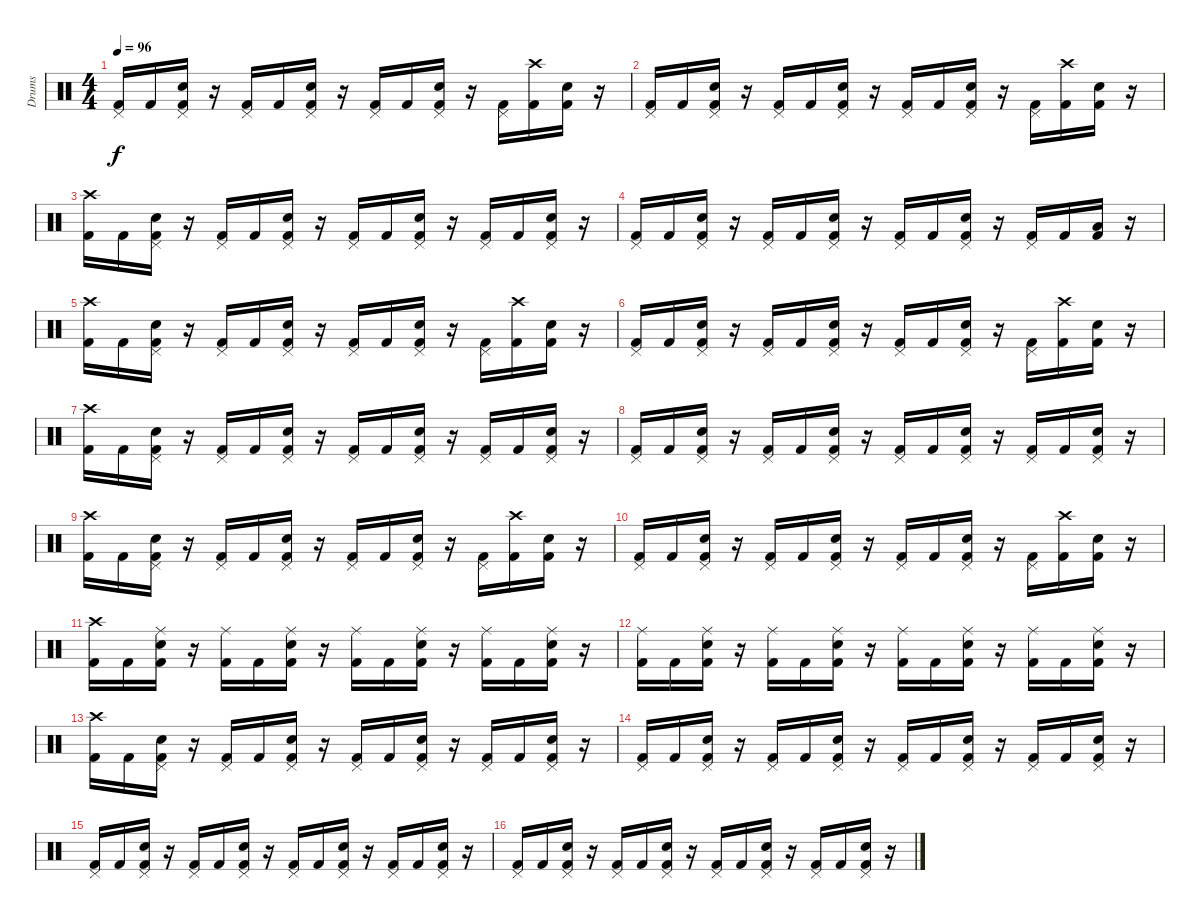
\track ("Drums" "Drums") {instrument percussion}
\staff {score}
\articulation defaults
\ts (4 4)
\tempo 96
\clef neutral
\ks c
("Pedal Hi-Hat (hit)" "Kick (hit) 2").16{dy f} "Kick (hit) 2".16 ("Pedal Hi-Hat (hit)" "Snare (hit) 2" "Kick (hit) 2").16 r.16 ("Pedal Hi-Hat (hit)" "Kick (hit) 2").16 "Kick (hit) 2".16 ("Pedal Hi-Hat (hit)" "Snare (hit) 2" "Kick (hit) 2").16 r.16 ("Pedal Hi-Hat (hit)" "Kick (hit) 2").16 "Kick (hit) 2".16 ("Pedal Hi-Hat (hit)" "Snare (hit) 2" "Kick (hit) 2").16 r.16 ("Pedal Hi-Hat (hit)" "Kick (hit) 2").16 ("Crash high (hit)" "Kick (hit) 2").16 ("Snare (hit) 2" "Kick (hit) 2").16 r.16 |
("Pedal Hi-Hat (hit)" "Kick (hit) 2").16 "Kick (hit) 2".16 ("Pedal Hi-Hat (hit)" "Snare (hit) 2" "Kick (hit) 2").16 r.16 ("Pedal Hi-Hat (hit)" "Kick (hit) 2").16 "Kick (hit) 2".16 ("Pedal Hi-Hat (hit)" "Snare (hit) 2" "Kick (hit) 2").16 r.16 ("Pedal Hi-Hat (hit)" "Kick (hit) 2").16 "Kick (hit) 2".16 ("Pedal Hi-Hat (hit)" "Snare (hit) 2" "Kick (hit) 2").16 r.16 ("Pedal Hi-Hat (hit)" "Kick (hit) 2").16 ("Crash high (hit)" "Kick (hit) 2").16 ("Snare (hit) 2" "Kick (hit) 2").16 r.16 |
("Crash high (hit)" "Kick (hit) 2").16 "Kick (hit) 2".16 ("Pedal Hi-Hat (hit)" "Snare (hit) 2" "Kick (hit) 2").16 r.16 ("Pedal Hi-Hat (hit)" "Kick (hit) 2").16 "Kick (hit) 2".16 ("Pedal Hi-Hat (hit)" "Snare (hit) 2" "Kick (hit) 2").16 r.16 ("Pedal Hi-Hat (hit)" "Kick (hit) 2").16 "Kick (hit) 2".16 ("Pedal Hi-Hat (hit)" "Snare (hit) 2" "Kick (hit) 2").16 r.16 ("Pedal Hi-Hat (hit)" "Kick (hit) 2").16 "Kick (hit) 2".16 ("Pedal Hi-Hat (hit)" "Snare (hit) 2" "Kick (hit) 2").16 r.16 |
("Pedal Hi-Hat (hit)" "Kick (hit) 2").16 "Kick (hit) 2".16 ("Pedal Hi-Hat (hit)" "Snare (hit) 2" "Kick (hit) 2").16 r.16 ("Pedal Hi-Hat (hit)" "Kick (hit) 2").16 "Kick (hit) 2".16 ("Pedal Hi-Hat (hit)" "Snare (hit) 2" "Kick (hit) 2").16 r.16 ("Pedal Hi-Hat (hit)" "Kick (hit) 2").16 "Kick (hit) 2".16 ("Pedal Hi-Hat (hit)" "Snare (hit) 2" "Kick (hit) 2").16 r.16 ("Pedal Hi-Hat (hit)" "Kick (hit) 2").16 "Kick (hit) 2".16 ("Low Tom (hit)" "Kick (hit) 2").16 r.16 |
("Crash high (hit)" "Kick (hit) 2").16 "Kick (hit) 2".16 ("Pedal Hi-Hat (hit)" "Snare (hit) 2" "Kick (hit) 2").16 r.16 ("Pedal Hi-Hat (hit)" "Kick (hit) 2").16 "Kick (hit) 2".16 ("Pedal Hi-Hat (hit)" "Snare (hit) 2" "Kick (hit) 2").16 r.16 ("Pedal Hi-Hat (hit)" "Kick (hit) 2").16 "Kick (hit) 2".16 ("Pedal Hi-Hat (hit)" "Snare (hit) 2" "Kick (hit) 2").16 r.16 ("Pedal Hi-Hat (hit)" "Kick (hit) 2").16 ("Crash high (hit)" "Kick (hit) 2").16 ("Snare (hit) 2" "Kick (hit) 2").16 r.16 |
("Pedal Hi-Hat (hit)" "Kick (hit) 2").16 "Kick (hit) 2".16 ("Pedal Hi-Hat (hit)" "Snare (hit) 2" "Kick (hit) 2").16 r.16 ("Pedal Hi-Hat (hit)" "Kick (hit) 2").16 "Kick (hit) 2".16 ("Pedal Hi-Hat (hit)" "Snare (hit) 2" "Kick (hit) 2").16 r.16 ("Pedal Hi-Hat (hit)" "Kick (hit) 2").16 "Kick (hit) 2".16 ("Pedal Hi-Hat (hit)" "Snare (hit) 2" "Kick (hit) 2").16 r.16 ("Pedal Hi-Hat (hit)" "Kick (hit) 2").16 ("Crash high (hit)" "Kick (hit) 2").16 ("Snare (hit) 2" "Kick (hit) 2").16 r.16 |
("Crash high (hit)" "Kick (hit) 2").16 "Kick (hit) 2".16 ("Pedal Hi-Hat (hit)" "Snare (hit) 2" "Kick (hit) 2").16 r.16 ("Pedal Hi-Hat (hit)" "Kick (hit) 2").16 "Kick (hit) 2".16 ("Pedal Hi-Hat (hit)" "Snare (hit) 2" "Kick (hit) 2").16 r.16 ("Pedal Hi-Hat (hit)" "Kick (hit) 2").16 "Kick (hit) 2".16 ("Pedal Hi-Hat (hit)" "Snare (hit) 2" "Kick (hit) 2").16 r.16 ("Pedal Hi-Hat (hit)" "Kick (hit) 2").16 "Kick (hit) 2".16 ("Pedal Hi-Hat (hit)" "Snare (hit) 2" "Kick (hit) 2").16 r.16 |
("Pedal Hi-Hat (hit)" "Kick (hit) 2").16 "Kick (hit) 2".16 ("Pedal Hi-Hat (hit)" "Snare (hit) 2" "Kick (hit) 2").16 r.16 ("Pedal Hi-Hat (hit)" "Kick (hit) 2").16 "Kick (hit) 2".16 ("Pedal Hi-Hat (hit)" "Snare (hit) 2" "Kick (hit) 2").16 r.16 ("Pedal Hi-Hat (hit)" "Kick (hit) 2").16 "Kick (hit) 2".16 ("Pedal Hi-Hat (hit)" "Snare (hit) 2" "Kick (hit) 2").16 r.16 ("Pedal Hi-Hat (hit)" "Kick (hit) 2").16 "Kick (hit) 2".16 ("Pedal Hi-Hat (hit)" "Snare (hit) 2" "Kick (hit) 2").16 r.16 |
("Crash high (hit)" "Kick (hit) 2").16 "Kick (hit) 2".16 ("Pedal Hi-Hat (hit)" "Snare (hit) 2" "Kick (hit) 2").16 r.16 ("Pedal Hi-Hat (hit)" "Kick (hit) 2").16 "Kick (hit) 2".16 ("Pedal Hi-Hat (hit)" "Snare (hit) 2" "Kick (hit) 2").16 r.16 ("Pedal Hi-Hat (hit)" "Kick (hit) 2").16 "Kick (hit) 2".16 ("Pedal Hi-Hat (hit)" "Snare (hit) 2" "Kick (hit) 2").16 r.16 ("Pedal Hi-Hat (hit)" "Kick (hit) 2").16 ("Crash high (hit)" "Kick (hit) 2").16 ("Snare (hit) 2" "Kick (hit) 2").16 r.16 |
("Pedal Hi-Hat (hit)" "Kick (hit) 2").16 "Kick (hit) 2".16 ("Pedal Hi-Hat (hit)" "Snare (hit) 2" "Kick (hit) 2").16 r.16 ("Pedal Hi-Hat (hit)" "Kick (hit) 2").16 "Kick (hit) 2".16 ("Pedal Hi-Hat (hit)" "Snare (hit) 2" "Kick (hit) 2").16 r.16 ("Pedal Hi-Hat (hit)" "Kick (hit) 2").16 "Kick (hit) 2".16 ("Pedal Hi-Hat (hit)" "Snare (hit) 2" "Kick (hit) 2").16 r.16 ("Pedal Hi-Hat (hit)" "Kick (hit) 2").16 ("Crash high (hit)" "Kick (hit) 2").16 ("Snare (hit) 2" "Kick (hit) 2").16 r.16 |
("Crash high (hit)" "Kick (hit) 2").16 "Kick (hit) 2".16 ("Ride (middle)" "Snare (hit) 2" "Kick (hit) 2").16 r.16 ("Ride (middle)" "Kick (hit) 2").16 "Kick (hit) 2".16 ("Ride (middle)" "Snare (hit) 2" "Kick (hit) 2").16 r.16 ("Ride (middle)" "Kick (hit) 2").16 "Kick (hit) 2".16 ("Ride (middle)" "Snare (hit) 2" "Kick (hit) 2").16 r.16 ("Ride (middle)" "Kick (hit) 2").16 "Kick (hit) 2".16 ("Ride (middle)" "Snare (hit) 2" "Kick (hit) 2").16 r.16 |
("Ride (middle)" "Kick (hit) 2").16 "Kick (hit) 2".16 ("Ride (middle)" "Snare (hit) 2" "Kick (hit) 2").16 r.16 ("Ride (middle)" "Kick (hit) 2").16 "Kick (hit) 2".16 ("Ride (middle)" "Snare (hit) 2" "Kick (hit) 2").16 r.16 ("Ride (middle)" "Kick (hit) 2").16 "Kick (hit) 2".16 ("Ride (middle)" "Snare (hit) 2" "Kick (hit) 2").16 r.16 ("Ride (middle)" "Kick (hit) 2").16 "Kick (hit) 2".16 ("Ride (middle)" "Snare (hit) 2" "Kick (hit) 2").16 r.16 |
("Crash high (hit)" "Kick (hit) 2").16 "Kick (hit) 2".16 ("Pedal Hi-Hat (hit)" "Snare (hit) 2" "Kick (hit) 2").16 r.16 ("Pedal Hi-Hat (hit)" "Kick (hit) 2").16 "Kick (hit) 2".16 ("Pedal Hi-Hat (hit)" "Snare (hit) 2" "Kick (hit) 2").16 r.16 ("Pedal Hi-Hat (hit)" "Kick (hit) 2").16 "Kick (hit) 2".16 ("Pedal Hi-Hat (hit)" "Snare (hit) 2" "Kick (hit) 2").16 r.16 ("Pedal Hi-Hat (hit)" "Kick (hit) 2").16 "Kick (hit) 2".16 ("Pedal Hi-Hat (hit)" "Snare (hit) 2" "Kick (hit) 2").16 r.16 |
("Pedal Hi-Hat (hit)" "Kick (hit) 2").16 "Kick (hit) 2".16 ("Pedal Hi-Hat (hit)" "Snare (hit) 2" "Kick (hit) 2").16 r.16 ("Pedal Hi-Hat (hit)" "Kick (hit) 2").16 "Kick (hit) 2".16 ("Pedal Hi-Hat (hit)" "Snare (hit) 2" "Kick (hit) 2").16 r.16 ("Pedal Hi-Hat (hit)" "Kick (hit) 2").16 "Kick (hit) 2".16 ("Pedal Hi-Hat (hit)" "Snare (hit) 2" "Kick (hit) 2").16 r.16 ("Pedal Hi-Hat (hit)" "Kick (hit) 2").16 "Kick (hit) 2".16 ("Pedal Hi-Hat (hit)" "Snare (hit) 2" "Kick (hit) 2").16 r.16 |
("Pedal Hi-Hat (hit)" "Kick (hit) 2").16 "Kick (hit) 2".16 ("Pedal Hi-Hat (hit)" "Snare (hit) 2" "Kick (hit) 2").16 r.16 ("Pedal Hi-Hat (hit)" "Kick (hit) 2").16 "Kick (hit) 2".16 ("Pedal Hi-Hat (hit)" "Snare (hit) 2" "Kick (hit) 2").16 r.16 ("Pedal Hi-Hat (hit)" "Kick (hit) 2").16 "Kick (hit) 2".16 ("Pedal Hi-Hat (hit)" "Snare (hit) 2" "Kick (hit) 2").16 r.16 ("Pedal Hi-Hat (hit)" "Kick (hit) 2").16 "Kick (hit) 2".16 ("Pedal Hi-Hat (hit)" "Snare (hit) 2" "Kick (hit) 2").16 r.16 |
("Pedal Hi-Hat (hit)" "Kick (hit) 2").16 "Kick (hit) 2".16 ("Pedal Hi-Hat (hit)" "Snare (hit) 2" "Kick (hit) 2").16 r.16 ("Pedal Hi-Hat (hit)" "Kick (hit) 2").16 "Kick (hit) 2".16 ("Pedal Hi-Hat (hit)" "Snare (hit) 2" "Kick (hit) 2").16 r.16 ("Pedal Hi-Hat (hit)" "Kick (hit) 2").16 "Kick (hit) 2".16 ("Pedal Hi-Hat (hit)" "Snare (hit) 2" "Kick (hit) 2").16 r.16 ("Pedal Hi-Hat (hit)" "Kick (hit) 2").16 "Kick (hit) 2".16 ("Pedal Hi-Hat (hit)" "Snare (hit) 2" "Kick (hit) 2").16 r.16
